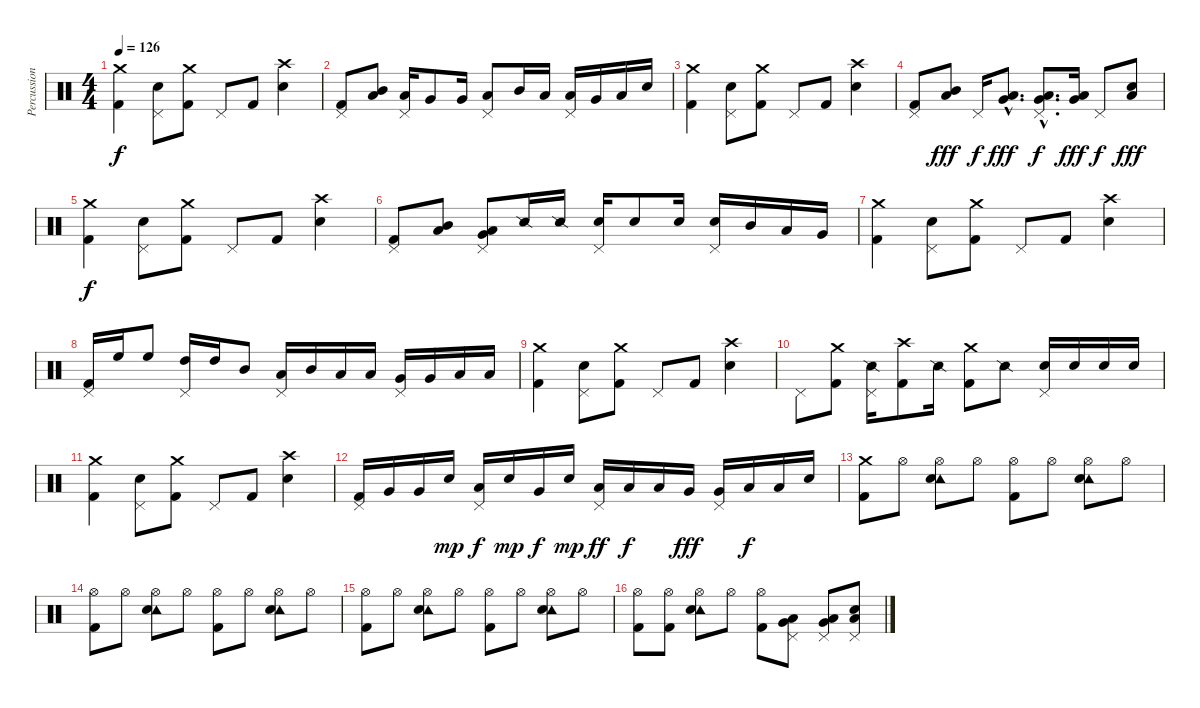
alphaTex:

\track ("Percussion" "Percussion") {instrument percussion}
\staff {score}
\articulation defaults
\ts (4 4)
\tempo 126
\clef neutral
\ks c
("Crash medium (hit)" "Kick (hit) 2").4{dy f} ("Pedal Hi-Hat (hit)" "Metronome (bell)").8 ("Crash medium (hit)" "Kick (hit) 2").8 "Pedal Hi-Hat (hit)".8 "Kick (hit) 2".8 ("Crash high (hit)" "Metronome (bell)").4 |
("Pedal Hi-Hat (hit)" "Kick (hit) 2").8 ("Mid Tom (hit)" "Low Tom (hit)").8 ("Pedal Hi-Hat (hit)" "Low Tom (hit)").16 "Very Low Tom (hit)".8 "Very Low Tom (hit)".16 ("Pedal Hi-Hat (hit)" "Low Tom (hit)").8 "Mid Tom (hit)".16 "Low Tom (hit)".16 ("Pedal Hi-Hat (hit)" "Low Tom (hit)").16 "Very Low Tom (hit)".16 "Low Floor Tom (hit)".16 "Snare (hit)".16 |
("Crash medium (hit)" "Kick (hit) 2").4 ("Pedal Hi-Hat (hit)" "Metronome (bell)").8 ("Crash medium (hit)" "Kick (hit) 2").8 "Pedal Hi-Hat (hit)".8 "Kick (hit) 2".8 ("Crash high (hit)" "Metronome (bell)").4 |
("Pedal Hi-Hat (hit)" "Kick (hit) 2").8 ("Mid Tom (hit)" "Low Tom (hit)").8{dy fff} "Pedal Hi-Hat (hit)".16{dy f} ("Low Tom (hit)"{hac} "Very Low Tom (hit)"{hac}).8{d dy fff} ("Pedal Hi-Hat (hit)"{hac} "Very Low Tom (hit)"{hac} "Low Floor Tom (hit)"{hac}).8{d dy f} ("Very Low Tom (hit)" "Low Floor Tom (hit)").16{dy fff} "Pedal Hi-Hat (hit)".8{dy f} ("Low Floor Tom (hit)" "Snare (hit)").8{dy fff} |
("Crash medium (hit)" "Kick (hit) 2").4{dy f} ("Pedal Hi-Hat (hit)" "Metronome (bell)").8 ("Crash medium (hit)" "Kick (hit) 2").8 "Pedal Hi-Hat (hit)".8 "Kick (hit) 2".8 ("Crash high (hit)" "Metronome (bell)").4 |
("Pedal Hi-Hat (hit)" "Kick (hit) 2").8 ("Mid Tom (hit)" "Low Tom (hit)").8 ("Pedal Hi-Hat (hit)" "Low Tom (hit)" "Very Low Tom (hit)").8 "Snare (side stick) 2".16 "Snare (side stick) 2".16 ("Pedal Hi-Hat (hit)" "Metronome (bell)").16 "Metronome (bell)".8 "Metronome (bell)".16 ("Pedal Hi-Hat (hit)" "Metronome (bell)").16 "Mid Tom (hit)".16 "Low Tom (hit)".16 "Very Low Tom (hit)".16 |
("Crash medium (hit)" "Kick (hit) 2").4 ("Pedal Hi-Hat (hit)" "Metronome (bell)").8 ("Crash medium (hit)" "Kick (hit) 2").8 "Pedal Hi-Hat (hit)".8 "Kick (hit) 2".8 ("Crash high (hit)" "Metronome (bell)").4 |
("Pedal Hi-Hat (hit)" "Kick (hit) 2").16 "High Floor Tom (hit)".16 "High Floor Tom (hit)".8 ("Pedal Hi-Hat (hit)" "High Tom (hit)").16 "High Tom (hit)".16 "Mid Tom (hit)".8 ("Pedal Hi-Hat (hit)" "Low Tom (hit)").16 "Mid Tom (hit)".16 "Low Tom (hit)".16 "Low Tom (hit)".16 ("Pedal Hi-Hat (hit)" "Very Low Tom (hit)").16 "Very Low Tom (hit)".16 "Low Floor Tom (hit)".16 "Low Floor Tom (hit)".16 |
("Crash medium (hit)" "Kick (hit) 2").4 ("Pedal Hi-Hat (hit)" "Metronome (bell)").8 ("Crash medium (hit)" "Kick (hit) 2").8 "Pedal Hi-Hat (hit)".8 "Kick (hit) 2".8 ("Crash high (hit)" "Metronome (bell)").4 |
"Pedal Hi-Hat (hit)".8 ("Crash medium (hit)" "Kick (hit) 2").8 ("Pedal Hi-Hat (hit)" "Snare (side stick) 2").16 ("Crash high (hit)" "Kick (hit) 2").8 "Snare (side stick) 2".16 ("Crash medium (hit)" "Kick (hit) 2").8 "Snare (side stick) 2".8 ("Pedal Hi-Hat (hit)" "Metronome (bell)").16 "Metronome (bell)".16 "Metronome (bell)".16 "Metronome (bell)".16 |
("Crash medium (hit)" "Kick (hit) 2").4 ("Pedal Hi-Hat (hit)" "Metronome (bell)").8 ("Crash medium (hit)" "Kick (hit) 2").8 "Pedal Hi-Hat (hit)".8 "Kick (hit) 2".8 ("Crash high (hit)" "Metronome (bell)").4 |
("Pedal Hi-Hat (hit)" "Kick (hit) 2").16 "Very Low Tom (hit)".16 "Very Low Tom (hit)".16 "Metronome (bell)".16{dy mp} ("Pedal Hi-Hat (hit)" "Low Tom (hit)").16{dy f} "Metronome (bell)".16{dy mp} "Very Low Tom (hit)".16{dy f} "Metronome (bell)".16{dy mp} ("Pedal Hi-Hat (hit)" "Low Tom (hit)").16{dy ff} "Low Tom (hit)".16{dy f} "Low Tom (hit)".16 "Very Low Tom (hit)".16{dy fff} ("Pedal Hi-Hat (hit)" "Very Low Tom (hit)").16 "Low Floor Tom (hit)".16{dy f} "Low Floor Tom (hit)".16 "Snare (hit)".16 |
("Crash medium (hit)" "Kick (hit) 2").8 "Hi-Hat (open)".8 ("Hi-Hat (open)" "Tambourine (hit)" "Metronome (bell)").8 "Hi-Hat (open)".8 ("Hi-Hat (open)" "Kick (hit) 2").8 "Hi-Hat (open)".8 ("Hi-Hat (open)" "Tambourine (hit)" "Metronome (bell)").8 "Hi-Hat (open)".8 |
("Hi-Hat (open)" "Kick (hit) 2").8 "Hi-Hat (open)".8 ("Hi-Hat (open)" "Tambourine (hit)" "Metronome (bell)").8 "Hi-Hat (open)".8 ("Hi-Hat (open)" "Kick (hit) 2").8 "Hi-Hat (open)".8 ("Hi-Hat (open)" "Tambourine (hit)" "Metronome (bell)").8 "Hi-Hat (open)".8 |
("Hi-Hat (open)" "Kick (hit) 2").8 "Hi-Hat (open)".8 ("Hi-Hat (open)" "Tambourine (hit)" "Metronome (bell)").8 "Hi-Hat (open)".8 ("Hi-Hat (open)" "Kick (hit) 2").8 "Hi-Hat (open)".8 ("Hi-Hat (open)" "Tambourine (hit)" "Metronome (bell)").8 "Hi-Hat (open)".8 |
("Hi-Hat (open)" "Kick (hit) 2").8 ("Hi-Hat (open)" "Kick (hit) 2").8 ("Hi-Hat (open)" "Tambourine (hit)" "Metronome (bell)").8 "Hi-Hat (open)".8 ("Hi-Hat (open)" "Kick (hit) 2").8 ("Pedal Hi-Hat (hit)" "Low Tom (hit)" "Very Low Tom (hit)").8 ("Pedal Hi-Hat (hit)" "Very Low Tom (hit)" "Low Floor Tom (hit)").8 ("Pedal Hi-Hat (hit)" "Low Floor Tom (hit)" "Snare (hit)").8
